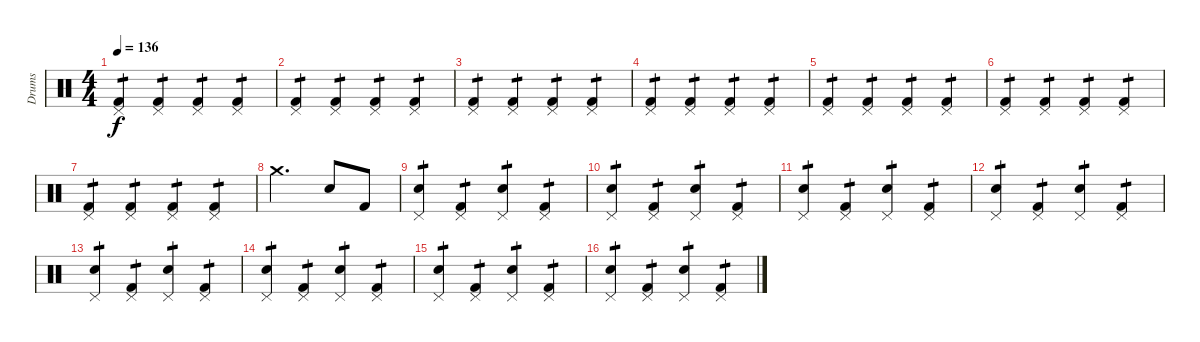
\track ("Drums" "Drums") {instrument percussion}
\staff {score}
\articulation defaults
\ts (4 4)
\tempo 136
\clef neutral
\ks c
("Kick (hit) 2" "Pedal Hi-Hat (hit)").4{tp 1 dy f} ("Kick (hit) 2" "Pedal Hi-Hat (hit)").4{tp 1} ("Kick (hit) 2" "Pedal Hi-Hat (hit)").4{tp 1} ("Kick (hit) 2" "Pedal Hi-Hat (hit)").4{tp 1} |
("Kick (hit) 2" "Pedal Hi-Hat (hit)").4{tp 1} ("Kick (hit) 2" "Pedal Hi-Hat (hit)").4{tp 1} ("Kick (hit) 2" "Pedal Hi-Hat (hit)").4{tp 1} ("Kick (hit) 2" "Pedal Hi-Hat (hit)").4{tp 1} |
("Kick (hit) 2" "Pedal Hi-Hat (hit)").4{tp 1} ("Kick (hit) 2" "Pedal Hi-Hat (hit)").4{tp 1} ("Kick (hit) 2" "Pedal Hi-Hat (hit)").4{tp 1} ("Kick (hit) 2" "Pedal Hi-Hat (hit)").4{tp 1} |
("Kick (hit) 2" "Pedal Hi-Hat (hit)").4{tp 1} ("Kick (hit) 2" "Pedal Hi-Hat (hit)").4{tp 1} ("Kick (hit) 2" "Pedal Hi-Hat (hit)").4{tp 1} ("Kick (hit) 2" "Pedal Hi-Hat (hit)").4{tp 1} |
("Kick (hit) 2" "Pedal Hi-Hat (hit)").4{tp 1} ("Kick (hit) 2" "Pedal Hi-Hat (hit)").4{tp 1} ("Kick (hit) 2" "Pedal Hi-Hat (hit)").4{tp 1} ("Kick (hit) 2" "Pedal Hi-Hat (hit)").4{tp 1} |
("Kick (hit) 2" "Pedal Hi-Hat (hit)").4{tp 1} ("Kick (hit) 2" "Pedal Hi-Hat (hit)").4{tp 1} ("Kick (hit) 2" "Pedal Hi-Hat (hit)").4{tp 1} ("Kick (hit) 2" "Pedal Hi-Hat (hit)").4{tp 1} |
("Kick (hit) 2" "Pedal Hi-Hat (hit)").4{tp 1} ("Kick (hit) 2" "Pedal Hi-Hat (hit)").4{tp 1} ("Kick (hit) 2" "Pedal Hi-Hat (hit)").4{tp 1} ("Kick (hit) 2" "Pedal Hi-Hat (hit)").4{tp 1} |
"Crash medium (hit)".2{d} "Snare (hit) 2".8 "Kick (hit) 2".8 |
("Snare (hit) 2" "Pedal Hi-Hat (hit)").4{tp 1} ("Kick (hit) 2" "Pedal Hi-Hat (hit)").4{tp 1} ("Snare (hit) 2" "Pedal Hi-Hat (hit)").4{tp 1} ("Kick (hit) 2" "Pedal Hi-Hat (hit)").4{tp 1} |
("Snare (hit) 2" "Pedal Hi-Hat (hit)").4{tp 1} ("Kick (hit) 2" "Pedal Hi-Hat (hit)").4{tp 1} ("Snare (hit) 2" "Pedal Hi-Hat (hit)").4{tp 1} ("Kick (hit) 2" "Pedal Hi-Hat (hit)").4{tp 1} |
("Snare (hit) 2" "Pedal Hi-Hat (hit)").4{tp 1} ("Kick (hit) 2" "Pedal Hi-Hat (hit)").4{tp 1} ("Snare (hit) 2" "Pedal Hi-Hat (hit)").4{tp 1} ("Kick (hit) 2" "Pedal Hi-Hat (hit)").4{tp 1} |
("Snare (hit) 2" "Pedal Hi-Hat (hit)").4{tp 1} ("Kick (hit) 2" "Pedal Hi-Hat (hit)").4{tp 1} ("Snare (hit) 2" "Pedal Hi-Hat (hit)").4{tp 1} ("Kick (hit) 2" "Pedal Hi-Hat (hit)").4{tp 1} |
("Snare (hit) 2" "Pedal Hi-Hat (hit)").4{tp 1} ("Kick (hit) 2" "Pedal Hi-Hat (hit)").4{tp 1} ("Snare (hit) 2" "Pedal Hi-Hat (hit)").4{tp 1} ("Kick (hit) 2" "Pedal Hi-Hat (hit)").4{tp 1} |
("Snare (hit) 2" "Pedal Hi-Hat (hit)").4{tp 1} ("Kick (hit) 2" "Pedal Hi-Hat (hit)").4{tp 1} ("Snare (hit) 2" "Pedal Hi-Hat (hit)").4{tp 1} ("Kick (hit) 2" "Pedal Hi-Hat (hit)").4{tp 1} |
("Snare (hit) 2" "Pedal Hi-Hat (hit)").4{tp 1} ("Kick (hit) 2" "Pedal Hi-Hat (hit)").4{tp 1} ("Snare (hit) 2" "Pedal Hi-Hat (hit)").4{tp 1} ("Kick (hit) 2" "Pedal Hi-Hat (hit)").4{tp 1} |
("Snare (hit) 2" "Pedal Hi-Hat (hit)").4{tp 1} ("Kick (hit) 2" "Pedal Hi-Hat (hit)").4{tp 1} ("Snare (hit) 2" "Pedal Hi-Hat (hit)").4{tp 1} ("Kick (hit) 2" "Pedal Hi-Hat (hit)").4{tp 1}
